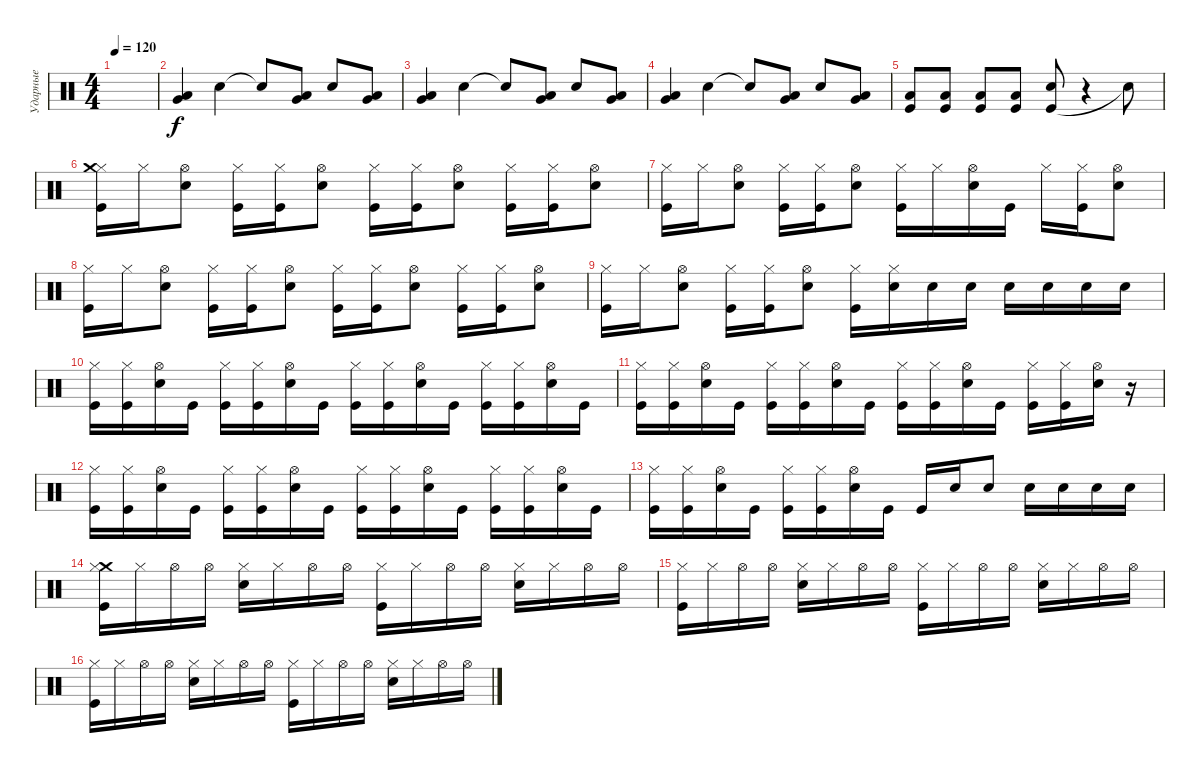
\track ("Ударные" "Ударные") {instrument percussion}
\staff {score}
\articulation defaults
\ts (4 4)
\tempo 120
\clef neutral
\ks c
|
("Low Floor Tom (hit)" "Very Low Tom (hit)").4 "Snare (hit) 2".4 "Snare (hit)"{t}.8 ("Low Floor Tom (hit)" "Very Low Tom (hit)").8 "Snare (hit) 2".8 ("Low Floor Tom (hit)" "Very Low Tom (hit)").8 |
("Low Floor Tom (hit)" "Very Low Tom (hit)").4 "Snare (hit) 2".4 "Snare (hit)"{t}.8 ("Low Floor Tom (hit)" "Very Low Tom (hit)").8 "Snare (hit) 2".8 ("Low Floor Tom (hit)" "Very Low Tom (hit)").8 |
("Low Floor Tom (hit)" "Very Low Tom (hit)").4 "Snare (hit) 2".4 "Snare (hit)"{t}.8 ("Low Floor Tom (hit)" "Very Low Tom (hit)").8 "Snare (hit) 2".8 ("Low Floor Tom (hit)" "Very Low Tom (hit)").8 |
("Kick (hit)" "Low Floor Tom (hit)").8 ("Kick (hit)" "Low Floor Tom (hit)").8 ("Kick (hit)" "Low Floor Tom (hit)").8 ("Kick (hit)" "Low Floor Tom (hit)").8 ("Kick (hit)" "Snare (hit) 2").8 r.4 "Snare (hit)"{t}.8 |
("Hi-Hat (closed)" "Crash medium (hit)" "Kick (hit)").16 "Hi-Hat (closed)".16 ("Snare (hit) 2" "Hi-Hat (open)").8 ("Hi-Hat (closed)" "Kick (hit)").16 ("Hi-Hat (closed)" "Kick (hit)").16 ("Hi-Hat (open)" "Snare (hit) 2").8 ("Hi-Hat (closed)" "Kick (hit)").16 ("Hi-Hat (closed)" "Kick (hit)").16 ("Hi-Hat (open)" "Snare (hit) 2").8 ("Hi-Hat (closed)" "Kick (hit)").16 ("Hi-Hat (closed)" "Kick (hit)").16 ("Hi-Hat (open)" "Snare (hit) 2").8 |
("Hi-Hat (closed)" "Kick (hit)").16 "Hi-Hat (closed)".16 ("Snare (hit) 2" "Hi-Hat (open)").8 ("Hi-Hat (closed)" "Kick (hit)").16 ("Hi-Hat (closed)" "Kick (hit)").16 ("Hi-Hat (open)" "Snare (hit) 2").8 ("Hi-Hat (closed)" "Kick (hit)").16 "Hi-Hat (closed)".16 ("Hi-Hat (open)" "Snare (hit) 2").16 "Kick (hit)".16 "Hi-Hat (closed)".16 ("Hi-Hat (closed)" "Kick (hit)").16 ("Snare (hit) 2" "Hi-Hat (open)").8 |
("Hi-Hat (closed)" "Kick (hit)").16 "Hi-Hat (closed)".16 ("Snare (hit) 2" "Hi-Hat (open)").8 ("Hi-Hat (closed)" "Kick (hit)").16 ("Hi-Hat (closed)" "Kick (hit)").16 ("Hi-Hat (open)" "Snare (hit) 2").8 ("Hi-Hat (closed)" "Kick (hit)").16 ("Hi-Hat (closed)" "Kick (hit)").16 ("Hi-Hat (open)" "Snare (hit) 2").8 ("Hi-Hat (closed)" "Kick (hit)").16 ("Hi-Hat (closed)" "Kick (hit)").16 ("Hi-Hat (open)" "Snare (hit) 2").8 |
("Hi-Hat (closed)" "Kick (hit)").16 "Hi-Hat (closed)".16 ("Snare (hit) 2" "Hi-Hat (open)").8 ("Hi-Hat (closed)" "Kick (hit)").16 ("Hi-Hat (closed)" "Kick (hit)").16 ("Hi-Hat (open)" "Snare (hit) 2").8 ("Hi-Hat (closed)" "Kick (hit)").16 ("Hi-Hat (closed)" "Snare (hit) 2").16 "Snare (hit) 2".16 "Snare (hit) 2".16 "Snare (hit) 2".16 "Snare (hit) 2".16 "Snare (hit) 2".16 "Snare (hit) 2".16 |
("Kick (hit)" "Hi-Hat (closed)").16 ("Kick (hit)" "Hi-Hat (closed)").16 ("Snare (hit) 2" "Hi-Hat (open)").16 "Kick (hit)".16 ("Kick (hit)" "Hi-Hat (closed)").16 ("Kick (hit)" "Hi-Hat (closed)").16 ("Snare (hit) 2" "Hi-Hat (open)").16 "Kick (hit)".16 ("Kick (hit)" "Hi-Hat (closed)").16 ("Kick (hit)" "Hi-Hat (closed)").16 ("Snare (hit) 2" "Hi-Hat (open)").16 "Kick (hit)".16 ("Kick (hit)" "Hi-Hat (closed)").16 ("Kick (hit)" "Hi-Hat (closed)").16 ("Snare (hit) 2" "Hi-Hat (open)").16 "Kick (hit)".16 |
("Kick (hit)" "Hi-Hat (closed)").16 ("Kick (hit)" "Hi-Hat (closed)").16 ("Snare (hit) 2" "Hi-Hat (open)").16 "Kick (hit)".16 ("Kick (hit)" "Hi-Hat (closed)").16 ("Kick (hit)" "Hi-Hat (closed)").16 ("Snare (hit) 2" "Hi-Hat (open)").16 "Kick (hit)".16 ("Kick (hit)" "Hi-Hat (closed)").16 ("Kick (hit)" "Hi-Hat (closed)").16 ("Snare (hit) 2" "Hi-Hat (open)").16 "Kick (hit)".16 ("Kick (hit)" "Hi-Hat (closed)").16 ("Kick (hit)" "Hi-Hat (closed)").16 ("Snare (hit) 2" "Hi-Hat (open)").16 r.16 |
("Kick (hit)" "Hi-Hat (closed)").16 ("Kick (hit)" "Hi-Hat (closed)").16 ("Snare (hit) 2" "Hi-Hat (open)").16 "Kick (hit)".16 ("Kick (hit)" "Hi-Hat (closed)").16 ("Kick (hit)" "Hi-Hat (closed)").16 ("Snare (hit) 2" "Hi-Hat (open)").16 "Kick (hit)".16 ("Kick (hit)" "Hi-Hat (closed)").16 ("Kick (hit)" "Hi-Hat (closed)").16 ("Snare (hit) 2" "Hi-Hat (open)").16 "Kick (hit)".16 ("Kick (hit)" "Hi-Hat (closed)").16 ("Kick (hit)" "Hi-Hat (closed)").16 ("Snare (hit) 2" "Hi-Hat (open)").16 "Kick (hit)".16 |
("Kick (hit)" "Hi-Hat (closed)").16 ("Kick (hit)" "Hi-Hat (closed)").16 ("Snare (hit) 2" "Hi-Hat (open)").16 "Kick (hit)".16 ("Kick (hit)" "Hi-Hat (closed)").16 ("Kick (hit)" "Hi-Hat (closed)").16 ("Snare (hit) 2" "Hi-Hat (open)").16 "Kick (hit)".16 "Kick (hit)".16 "Snare (hit) 2".16 "Snare (hit) 2".8 "Snare (hit) 2".16 "Snare (hit) 2".16 "Snare (hit) 2".16 "Snare (hit) 2".16 |
("Crash medium (hit)" "Kick (hit)" "Hi-Hat (closed)").16 "Hi-Hat (closed)".16 "Hi-Hat (open)".16 "Hi-Hat (open)".16 ("Snare (hit) 2" "Hi-Hat (closed)").16 "Hi-Hat (closed)".16 "Hi-Hat (open)".16 "Hi-Hat (open)".16 ("Kick (hit)" "Hi-Hat (closed)").16 "Hi-Hat (closed)".16 "Hi-Hat (open)".16 "Hi-Hat (open)".16 ("Snare (hit) 2" "Hi-Hat (closed)").16 "Hi-Hat (closed)".16 "Hi-Hat (open)".16 "Hi-Hat (open)".16 |
("Kick (hit)" "Hi-Hat (closed)").16 "Hi-Hat (closed)".16 "Hi-Hat (open)".16 "Hi-Hat (open)".16 ("Snare (hit) 2" "Hi-Hat (closed)").16 "Hi-Hat (closed)".16 "Hi-Hat (open)".16 "Hi-Hat (open)".16 ("Kick (hit)" "Hi-Hat (closed)").16 "Hi-Hat (closed)".16 "Hi-Hat (open)".16 "Hi-Hat (open)".16 ("Snare (hit) 2" "Hi-Hat (closed)").16 "Hi-Hat (closed)".16 "Hi-Hat (open)".16 "Hi-Hat (open)".16 |
("Kick (hit)" "Hi-Hat (closed)").16 "Hi-Hat (closed)".16 "Hi-Hat (open)".16 "Hi-Hat (open)".16 ("Snare (hit) 2" "Hi-Hat (closed)").16 "Hi-Hat (closed)".16 "Hi-Hat (open)".16 "Hi-Hat (open)".16 ("Kick (hit)" "Hi-Hat (closed)").16 "Hi-Hat (closed)".16 "Hi-Hat (open)".16 "Hi-Hat (open)".16 ("Snare (hit) 2" "Hi-Hat (closed)").16 "Hi-Hat (closed)".16 "Hi-Hat (open)".16 "Hi-Hat (open)".16
